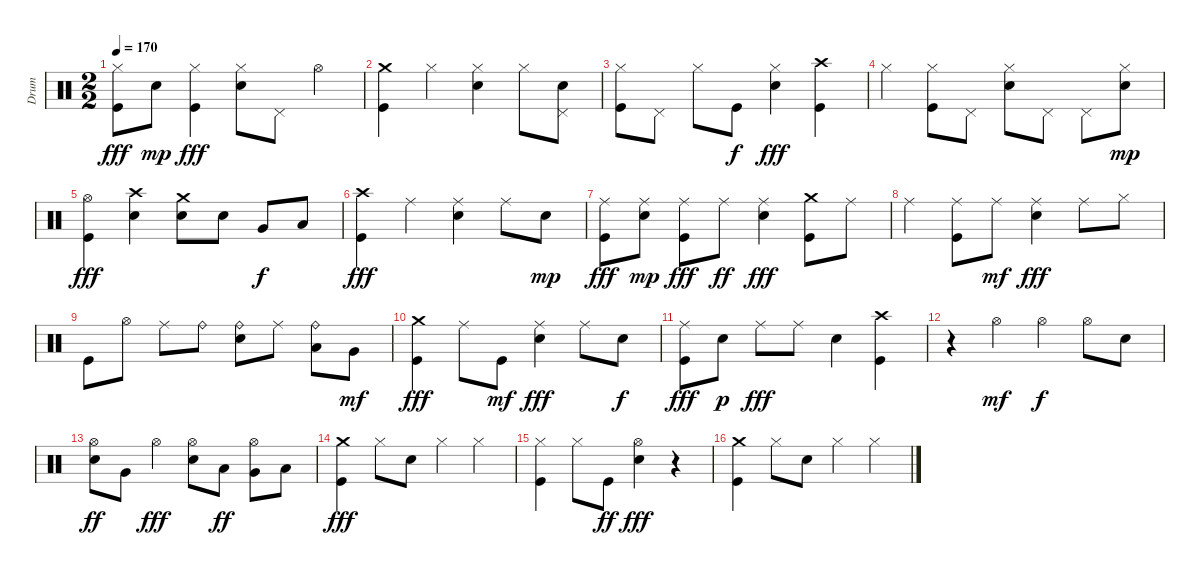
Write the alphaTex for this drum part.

\track ("Drum" "Drum") {instrument percussion}
\staff {score}
\articulation defaults
\ts (2 2)
\tempo 170
\clef neutral
\ks c
("Hi-Hat (closed)" "Kick (hit)").8{dy fff} "Electric Snare (hit)".8{dy mp} ("Hi-Hat (closed)" "Kick (hit)").4{dy fff} ("Hi-Hat (closed)" "Electric Snare (hit)").8 "Pedal Hi-Hat (hit)".8 "Hi-Hat (open)".4 |
("Crash medium (hit)" "Kick (hit)").4 "Hi-Hat (closed)".4 ("Hi-Hat (closed)" "Electric Snare (hit)").4 "Hi-Hat (closed)".8 ("Pedal Hi-Hat (hit)" "Electric Snare (hit)").8 |
("Hi-Hat (closed)" "Kick (hit)").8 "Pedal Hi-Hat (hit)".8 "Hi-Hat (closed)".8 "Kick (hit)".8{dy f} ("Hi-Hat (closed)" "Electric Snare (hit)").4{dy fff} ("Crash high (hit)" "Kick (hit)").4 |
"Hi-Hat (closed)".4 ("Kick (hit)" "Hi-Hat (closed)").8 "Pedal Hi-Hat (hit)".8 ("Electric Snare (hit)" "Hi-Hat (closed)").8 "Pedal Hi-Hat (hit)".8 "Pedal Hi-Hat (hit)".8 ("Hi-Hat (closed)" "Electric Snare (hit)").8{dy mp} |
("Kick (hit)" "Hi-Hat (open)").4{dy fff} ("Crash high (hit)" "Electric Snare (hit)").4 ("Crash medium (hit)" "Electric Snare (hit)").8 "Electric Snare (hit)".8 "Very Low Tom (hit)".8{dy f} "Low Floor Tom (hit)".8 |
("Crash high (hit)" "Kick (hit)").4{dy fff} "Ride (middle)".4 ("Ride (middle)" "Electric Snare (hit)").4 "Ride (middle)".8 "Electric Snare (hit)".8{dy mp} |
("Ride (middle)" "Kick (hit)").8{dy fff} ("Ride (middle)" "Electric Snare (hit)").8{dy mp} ("Ride (middle)" "Kick (hit)").8{dy fff} "Ride (middle)".8{dy ff} ("Ride (middle)" "Electric Snare (hit)").4{dy fff} ("Crash medium (hit)" "Kick (hit)").8 "Ride (middle)".8 |
"Ride (middle)".4 ("Ride (middle)" "Kick (hit)").8 "Ride (middle)".8{dy mf} ("Ride (middle)" "Electric Snare (hit)").4{dy fff} "Ride (middle)".8 "Hi-Hat (closed)".8 |
"Kick (hit)".8 "Hi-Hat (open)".8 "Ride (middle)".8 "Ride (bell)".8 ("Ride (bell)" "Electric Snare (hit)").8 "Ride (middle)".8 ("Ride (bell)" "Low Tom (hit)").8 "Very Low Tom (hit)".8{dy mf} |
("Crash medium (hit)" "Kick (hit)").4{dy fff} "Ride (middle)".8 "Kick (hit)".8{dy mf} ("Ride (middle)" "Electric Snare (hit)").4{dy fff} "Ride (middle)".8 "Electric Snare (hit)".8{dy f} |
("Ride (middle)" "Kick (hit)").8{dy fff} "Electric Snare (hit)".8{dy p} "Ride (middle)".8{dy fff} "Ride (middle)".8 "Electric Snare (hit)".4 ("Crash high (hit)" "Kick (hit)").4 |
r.4 "Hi-Hat (open)".4{dy mf} "Hi-Hat (open)".4{dy f} "Hi-Hat (open)".8 "Electric Snare (hit)".8 |
("Electric Snare (hit)" "Hi-Hat (open)").8{dy ff} "Very Low Tom (hit)".8 "Hi-Hat (open)".4{dy fff} ("Electric Snare (hit)" "Hi-Hat (open)").8 "Low Tom (hit)".8{dy ff} ("Very Low Tom (hit)" "Hi-Hat (open)").8 "Low Floor Tom (hit)".8 |
("Crash medium (hit)" "Kick (hit)").4{dy fff} "Hi-Hat (closed)".8 "Electric Snare (hit)".8 "Hi-Hat (closed)".4 "Hi-Hat (closed)".4 |
("Kick (hit)" "Hi-Hat (closed)").4 "Hi-Hat (closed)".8 "Kick (hit)".8{dy ff} ("Electric Snare (hit)" "Hi-Hat (open)").4{dy fff} r.4 |
("Crash medium (hit)" "Kick (hit)").4 "Hi-Hat (closed)".8 "Electric Snare (hit)".8 "Hi-Hat (closed)".4 "Hi-Hat (closed)".4
